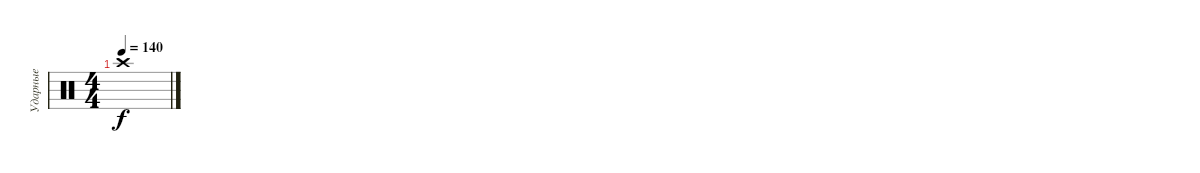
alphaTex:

\track ("Ударные" "Ударные") {instrument percussion}
\staff {score}
\articulation defaults
\ts (4 4)
\tempo 140
\clef neutral
\ks c "Crash high (hit)".1{dy f}
